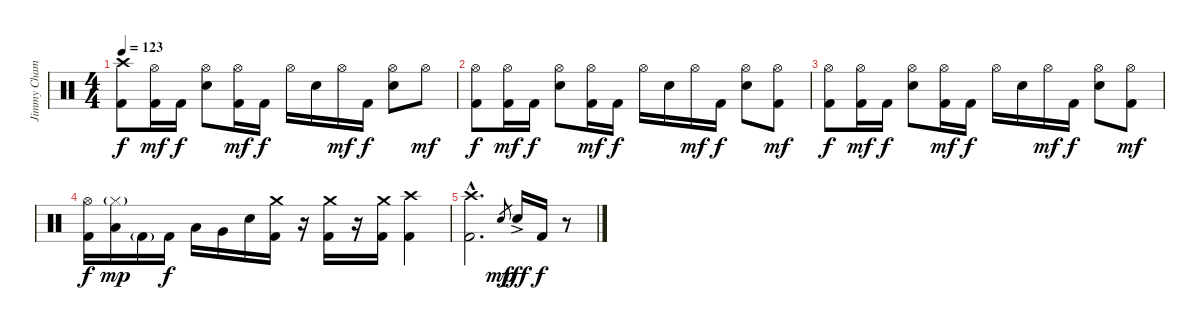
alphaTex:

\track ("Jimmy Chamberlin" "Jimmy Cham") {instrument percussion}
\staff {score}
\articulation defaults
\ts (4 4)
\tempo 123
\clef neutral
\ks c
("Crash high (hit)" "Kick (hit) 2").8{dy f} ("Hi-Hat (open)" "Kick (hit) 2").16{dy mf} "Kick (hit) 2".16{dy f} ("Hi-Hat (open)" "Electric Snare (hit)").8 ("Hi-Hat (open)" "Kick (hit) 2").16{dy mf} "Kick (hit) 2".16{dy f} "Hi-Hat (open)".16 "Electric Snare (hit)".16 "Hi-Hat (open)".16{dy mf} "Kick (hit) 2".16{dy f} ("Hi-Hat (open)" "Electric Snare (hit)").8 "Hi-Hat (open)".8{dy mf} |
("Hi-Hat (open)" "Kick (hit) 2").8{dy f} ("Hi-Hat (open)" "Kick (hit) 2").16{dy mf} "Kick (hit) 2".16{dy f} ("Hi-Hat (open)" "Electric Snare (hit)").8 ("Hi-Hat (open)" "Kick (hit) 2").16{dy mf} "Kick (hit) 2".16{dy f} "Hi-Hat (open)".16 "Electric Snare (hit)".16 "Hi-Hat (open)".16{dy mf} "Kick (hit) 2".16{dy f} ("Hi-Hat (open)" "Electric Snare (hit)").8 ("Hi-Hat (open)" "Kick (hit) 2").8{dy mf} |
("Hi-Hat (open)" "Kick (hit) 2").8{dy f} ("Hi-Hat (open)" "Kick (hit) 2").16{dy mf} "Kick (hit) 2".16{dy f} ("Hi-Hat (open)" "Electric Snare (hit)").8 ("Hi-Hat (open)" "Kick (hit) 2").16{dy mf} "Kick (hit) 2".16{dy f} "Hi-Hat (open)".16 "Electric Snare (hit)".16 "Hi-Hat (open)".16{dy mf} "Kick (hit) 2".16{dy f} ("Hi-Hat (open)" "Electric Snare (hit)").8 ("Hi-Hat (open)" "Kick (hit) 2").8{dy mf} |
("Hi-Hat (open)" "Kick (hit) 2").16{dy f} ("Hi-Hat (closed)"{g} "Low Tom (hit)").16{dy mp} "Kick (hit) 2"{g}.16 "Kick (hit) 2".16{dy f} "Low Tom (hit)".16 "Very Low Tom (hit)".16 "Electric Snare (hit)".16 ("Crash medium (hit)" "Kick (hit) 2").16 r.16 ("Crash medium (hit)" "Kick (hit) 2").16 r.16 ("Crash medium (hit)" "Kick (hit) 2").16 ("Crash high (hit)" "Kick (hit) 2").4 |
("Crash high (hit)"{hac} "Kick (hit) 2"{hac}).2{d} "Electric Snare (hit)".8{gr dy mp} "Electric Snare (hit)"{ac}.16{dy fff} "Kick (hit) 2".16{dy f} r.8
